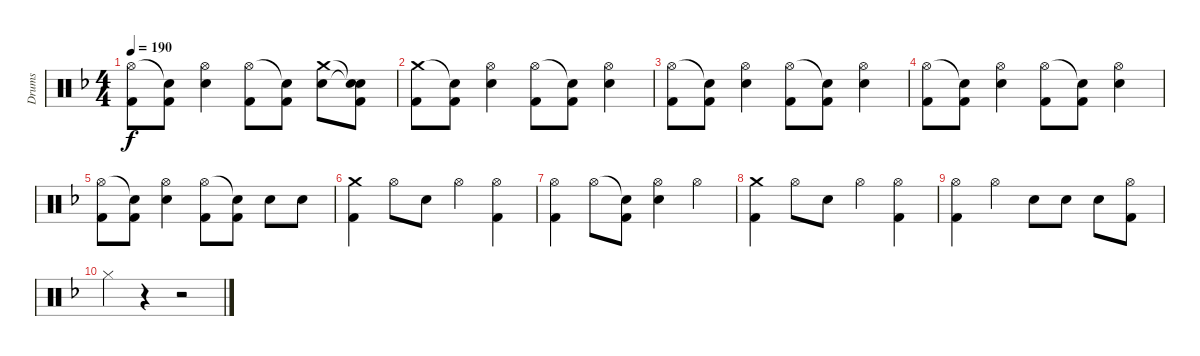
\track ("Drums" "Drums") {instrument percussion}
\staff {score}
\articulation defaults
\ts (4 4)
\tempo 190
\clef neutral
\ks dminor
("Hi-Hat (open)" "Kick (hit) 2").8{dy f} ("Snare (hit)"{t} "Kick (hit) 2").8 ("Hi-Hat (open)" "Electric Snare (hit)").4 ("Hi-Hat (open)" "Kick (hit) 2").8 ("Snare (hit)"{t} "Kick (hit) 2").8 ("Crash medium (hit)" "Electric Snare (hit)").8 ("Snare (hit)"{t} "Snare (hit)"{t} "Kick (hit) 2").8 |
("Crash medium (hit)" "Kick (hit) 2").8 ("Snare (hit)"{t} "Kick (hit) 2").8 ("Hi-Hat (open)" "Electric Snare (hit)").4 ("Hi-Hat (open)" "Kick (hit) 2").8 ("Snare (hit)"{t} "Kick (hit) 2").8 ("Hi-Hat (open)" "Electric Snare (hit)").4 |
("Hi-Hat (open)" "Kick (hit) 2").8 ("Snare (hit)"{t} "Kick (hit) 2").8 ("Hi-Hat (open)" "Electric Snare (hit)").4 ("Hi-Hat (open)" "Kick (hit) 2").8 ("Snare (hit)"{t} "Kick (hit) 2").8 ("Hi-Hat (open)" "Electric Snare (hit)").4 |
("Hi-Hat (open)" "Kick (hit) 2").8 ("Snare (hit)"{t} "Kick (hit) 2").8 ("Hi-Hat (open)" "Electric Snare (hit)").4 ("Hi-Hat (open)" "Kick (hit) 2").8 ("Snare (hit)"{t} "Kick (hit) 2").8 ("Hi-Hat (open)" "Electric Snare (hit)").4 |
("Hi-Hat (open)" "Kick (hit) 2").8 ("Snare (hit)"{t} "Kick (hit) 2").8 ("Hi-Hat (open)" "Electric Snare (hit)").4 ("Hi-Hat (open)" "Kick (hit) 2").8 ("Snare (hit)"{t} "Kick (hit) 2").8 "Electric Snare (hit)".8 "Electric Snare (hit)".8 |
("Crash medium (hit)" "Kick (hit) 2").4 "Hi-Hat (open)".8 "Electric Snare (hit)".8 "Hi-Hat (open)".4 ("Hi-Hat (open)" "Kick (hit) 2").4 |
("Hi-Hat (open)" "Kick (hit) 2").4 "Hi-Hat (open)".8 ("Snare (hit)"{t} "Kick (hit) 2").8 ("Hi-Hat (open)" "Electric Snare (hit)").4 "Hi-Hat (open)".4 |
("Crash medium (hit)" "Kick (hit) 2").4 "Hi-Hat (open)".8 "Electric Snare (hit)".8 "Hi-Hat (open)".4 ("Hi-Hat (open)" "Kick (hit) 2").4 |
("Hi-Hat (open)" "Kick (hit) 2").4 "Hi-Hat (open)".4 "Electric Snare (hit)".8 "Electric Snare (hit)".8 "Electric Snare (hit)".8 ("Hi-Hat (open)" "Kick (hit) 2").8 |
"Hi-Hat (closed)".4 r.4 r.2
